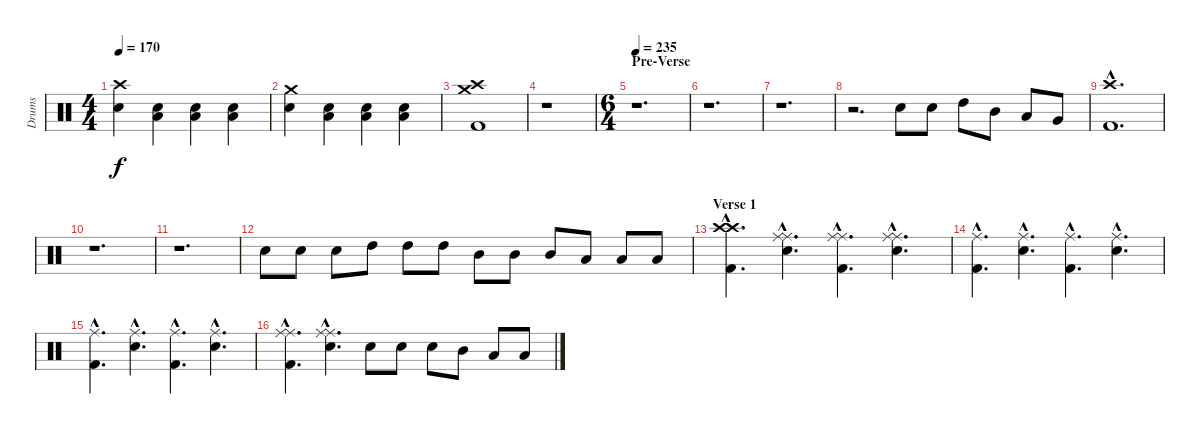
\track ("Drums" "Drums") {instrument percussion}
\staff {score}
\articulation defaults
\ts (4 4)
\tempo 170
\clef neutral
\ks c
("Crash high (hit)" "Snare (hit) 2").4{dy f} ("Low Floor Tom (hit)" "Snare (hit) 2").4 ("Low Floor Tom (hit)" "Snare (hit) 2").4 ("Low Floor Tom (hit)" "Snare (hit) 2").4 |
("Crash medium (hit)" "Snare (hit) 2").4 ("Low Floor Tom (hit)" "Snare (hit) 2").4 ("Low Floor Tom (hit)" "Snare (hit) 2").4 ("Low Floor Tom (hit)" "Snare (hit) 2").4 |
("Crash high (hit)" "Crash medium (hit)" "Kick (hit) 2").1 |
r.1 |
\ts (6 4)
\section ("" "Pre-Verse")
\tempo 235
r.1{d} |
r.1{d} |
r.1{d} |
r.2{d} "Snare (hit) 2".8 "Snare (hit) 2".8 "High Tom (hit)".8 "Mid Tom (hit)".8 "Low Tom (hit)".8 "Very Low Tom (hit)".8 |
("Crash high (hit)"{hac} "Kick (hit) 2"{hac}).1{d} |
r.1{d} |
r.1{d} |
"Snare (hit) 2".8 "Snare (hit) 2".8 "Snare (hit) 2".8 "High Tom (hit)".8 "High Tom (hit)".8 "High Tom (hit)".8 "Mid Tom (hit)".8 "Mid Tom (hit)".8 "Mid Tom (hit)".8 "Low Tom (hit)".8 "Low Tom (hit)".8 "Low Tom (hit)".8 |
\section ("" "Verse 1")
("Crash high (hit)"{hac} "Crash high (hit)"{hac} "Kick (hit) 2"{hac}).4{d} ("Ride (middle)"{hac} "Ride (middle)"{hac} "Electric Snare (hit)"{hac}).4{d} ("Ride (middle)"{hac} "Ride (middle)"{hac} "Kick (hit) 2"{hac}).4{d} ("Ride (middle)"{hac} "Ride (middle)"{hac} "Electric Snare (hit)"{hac}).4{d} |
("Ride (middle)"{hac} "Kick (hit) 2"{hac}).4{d} ("Ride (middle)"{hac} "Snare (hit) 2"{hac}).4{d} ("Ride (middle)"{hac} "Kick (hit) 2"{hac}).4{d} ("Ride (middle)"{hac} "Snare (hit) 2"{hac}).4{d} |
("Ride (middle)"{hac} "Kick (hit) 2"{hac}).4{d} ("Ride (middle)"{hac} "Snare (hit) 2"{hac}).4{d} ("Ride (middle)"{hac} "Kick (hit) 2"{hac}).4{d} ("Ride (middle)"{hac} "Snare (hit) 2"{hac}).4{d} |
("Ride (middle)"{hac} "Ride (middle)"{hac} "Kick (hit) 2"{hac}).4{d} ("Ride (middle)"{hac} "Ride (middle)"{hac} "Snare (hit) 2"{hac}).4{d} "Snare (hit) 2".8 "Snare (hit) 2".8 "Snare (hit) 2".8 "Mid Tom (hit)".8 "Low Tom (hit)".8 "Low Tom (hit)".8
